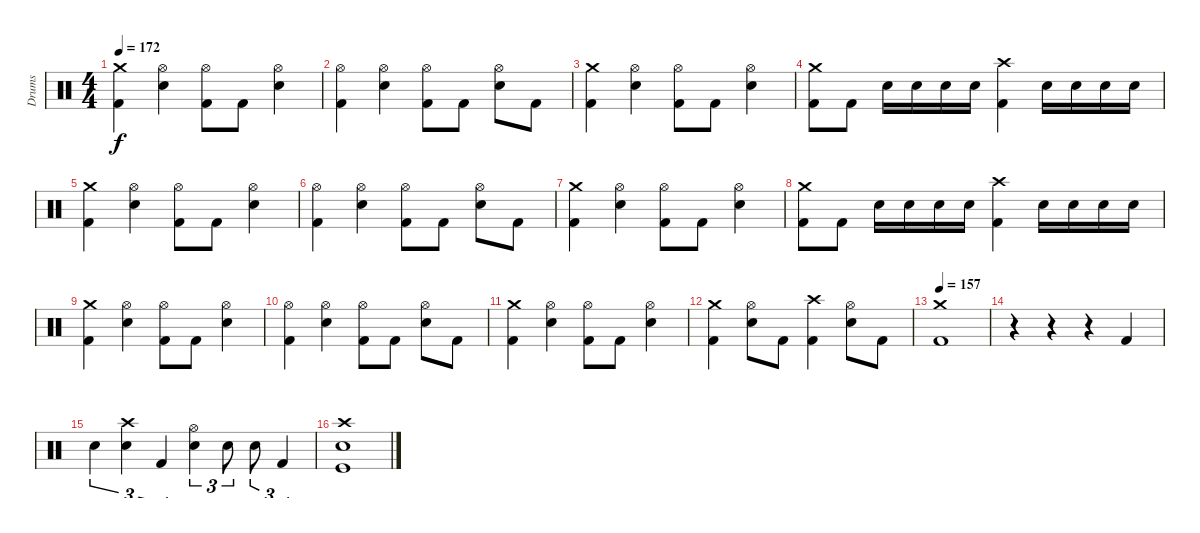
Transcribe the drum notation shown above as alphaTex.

\track ("Drums" "Drums") {instrument percussion}
\staff {score}
\articulation defaults
\ts (4 4)
\tempo 172
\clef neutral
\ks c
("Crash medium (hit)" "Kick (hit) 2").4{dy f} ("Hi-Hat (open)" "Electric Snare (hit)").4 ("Hi-Hat (open)" "Kick (hit) 2").8 "Kick (hit) 2".8 ("Hi-Hat (open)" "Electric Snare (hit)").4 |
("Hi-Hat (open)" "Kick (hit) 2").4 ("Hi-Hat (open)" "Electric Snare (hit)").4 ("Hi-Hat (open)" "Kick (hit) 2").8 "Kick (hit) 2".8 ("Hi-Hat (open)" "Electric Snare (hit)").8 "Kick (hit) 2".8 |
("Crash medium (hit)" "Kick (hit) 2").4 ("Hi-Hat (open)" "Electric Snare (hit)").4 ("Hi-Hat (open)" "Kick (hit) 2").8 "Kick (hit) 2".8 ("Hi-Hat (open)" "Electric Snare (hit)").4 |
("Crash medium (hit)" "Kick (hit) 2").8 "Kick (hit) 2".8 "Electric Snare (hit)".16 "Electric Snare (hit)".16 "Electric Snare (hit)".16 "Electric Snare (hit)".16 ("Crash high (hit)" "Kick (hit) 2").4 "Electric Snare (hit)".16 "Electric Snare (hit)".16 "Electric Snare (hit)".16 "Electric Snare (hit)".16 |
("Crash medium (hit)" "Kick (hit) 2").4 ("Hi-Hat (open)" "Electric Snare (hit)").4 ("Hi-Hat (open)" "Kick (hit) 2").8 "Kick (hit) 2".8 ("Hi-Hat (open)" "Electric Snare (hit)").4 |
("Hi-Hat (open)" "Kick (hit) 2").4 ("Hi-Hat (open)" "Electric Snare (hit)").4 ("Hi-Hat (open)" "Kick (hit) 2").8 "Kick (hit) 2".8 ("Hi-Hat (open)" "Electric Snare (hit)").8 "Kick (hit) 2".8 |
("Crash medium (hit)" "Kick (hit) 2").4 ("Hi-Hat (open)" "Electric Snare (hit)").4 ("Hi-Hat (open)" "Kick (hit) 2").8 "Kick (hit) 2".8 ("Hi-Hat (open)" "Electric Snare (hit)").4 |
("Crash medium (hit)" "Kick (hit) 2").8 "Kick (hit) 2".8 "Electric Snare (hit)".16 "Electric Snare (hit)".16 "Electric Snare (hit)".16 "Electric Snare (hit)".16 ("Crash high (hit)" "Kick (hit) 2").4 "Electric Snare (hit)".16 "Electric Snare (hit)".16 "Electric Snare (hit)".16 "Electric Snare (hit)".16 |
("Crash medium (hit)" "Kick (hit) 2").4 ("Hi-Hat (open)" "Electric Snare (hit)").4 ("Hi-Hat (open)" "Kick (hit) 2").8 "Kick (hit) 2".8 ("Hi-Hat (open)" "Electric Snare (hit)").4 |
("Hi-Hat (open)" "Kick (hit) 2").4 ("Hi-Hat (open)" "Electric Snare (hit)").4 ("Hi-Hat (open)" "Kick (hit) 2").8 "Kick (hit) 2".8 ("Hi-Hat (open)" "Electric Snare (hit)").8 "Kick (hit) 2".8 |
("Crash medium (hit)" "Kick (hit) 2").4 ("Hi-Hat (open)" "Electric Snare (hit)").4 ("Hi-Hat (open)" "Kick (hit) 2").8 "Kick (hit) 2".8 ("Hi-Hat (open)" "Electric Snare (hit)").4 |
("Crash medium (hit)" "Kick (hit) 2").4 ("Hi-Hat (open)" "Electric Snare (hit)").8 "Kick (hit) 2".8 ("Crash high (hit)" "Kick (hit) 2").4 ("Hi-Hat (open)" "Electric Snare (hit)").8 "Kick (hit) 2".8 |
\tempo 157
("Crash medium (hit)" "Kick (hit) 2").1 |
r.4 r.4 r.4 "Kick (hit) 2".4 |
"Electric Snare (hit)".4{tu (3 2)} ("Crash high (hit)" "Electric Snare (hit)").4{tu (3 2)} "Kick (hit) 2".4{tu (3 2)} ("Hi-Hat (open)" "Electric Snare (hit)").4{tu (3 2)} "Electric Snare (hit)".8{tu (3 2)} "Electric Snare (hit)".8{tu (3 2)} "Kick (hit) 2".4{tu (3 2)} |
("Crash high (hit)" "Electric Snare (hit)" "Kick (hit)").1
